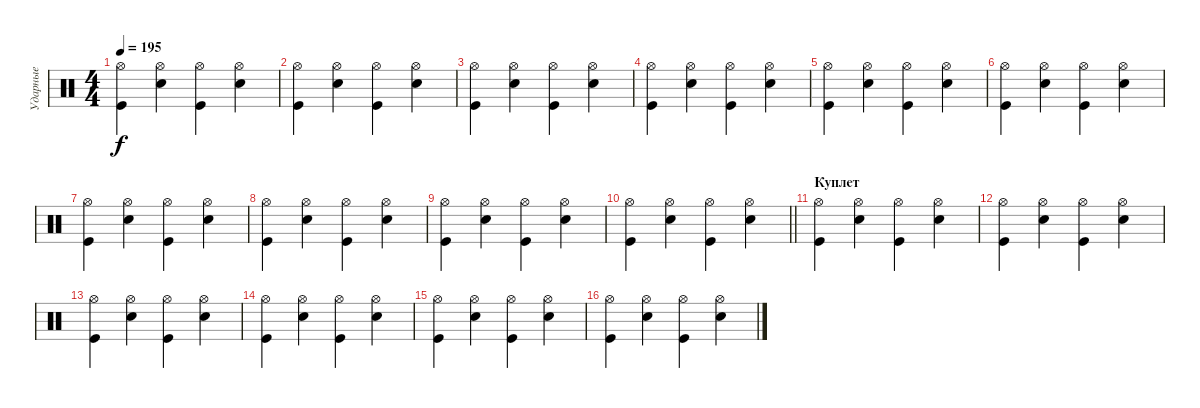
\track ("Ударные" "Ударные") {instrument percussion}
\staff {score}
\articulation defaults
\ts (4 4)
\tempo 195
\clef neutral
\ks c
("Hi-Hat (open)" "Kick (hit)").4{dy f} ("Hi-Hat (open)" "Electric Snare (hit)").4 ("Hi-Hat (open)" "Kick (hit)").4 ("Hi-Hat (open)" "Electric Snare (hit)").4 |
("Hi-Hat (open)" "Kick (hit)").4 ("Hi-Hat (open)" "Electric Snare (hit)").4 ("Hi-Hat (open)" "Kick (hit)").4 ("Hi-Hat (open)" "Electric Snare (hit)").4 |
("Hi-Hat (open)" "Kick (hit)").4 ("Hi-Hat (open)" "Electric Snare (hit)").4 ("Hi-Hat (open)" "Kick (hit)").4 ("Hi-Hat (open)" "Electric Snare (hit)").4 |
("Hi-Hat (open)" "Kick (hit)").4 ("Hi-Hat (open)" "Electric Snare (hit)").4 ("Hi-Hat (open)" "Kick (hit)").4 ("Hi-Hat (open)" "Electric Snare (hit)").4 |
("Hi-Hat (open)" "Kick (hit)").4 ("Hi-Hat (open)" "Electric Snare (hit)").4 ("Hi-Hat (open)" "Kick (hit)").4 ("Hi-Hat (open)" "Electric Snare (hit)").4 |
("Hi-Hat (open)" "Kick (hit)").4 ("Hi-Hat (open)" "Electric Snare (hit)").4 ("Hi-Hat (open)" "Kick (hit)").4 ("Hi-Hat (open)" "Electric Snare (hit)").4 |
("Hi-Hat (open)" "Kick (hit)").4 ("Hi-Hat (open)" "Electric Snare (hit)").4 ("Hi-Hat (open)" "Kick (hit)").4 ("Hi-Hat (open)" "Electric Snare (hit)").4 |
("Hi-Hat (open)" "Kick (hit)").4 ("Hi-Hat (open)" "Electric Snare (hit)").4 ("Hi-Hat (open)" "Kick (hit)").4 ("Hi-Hat (open)" "Electric Snare (hit)").4 |
("Hi-Hat (open)" "Kick (hit)").4 ("Hi-Hat (open)" "Electric Snare (hit)").4 ("Hi-Hat (open)" "Kick (hit)").4 ("Hi-Hat (open)" "Electric Snare (hit)").4 |
\barLineRight lightlight
("Hi-Hat (open)" "Kick (hit)").4 ("Hi-Hat (open)" "Electric Snare (hit)").4 ("Hi-Hat (open)" "Kick (hit)").4 ("Hi-Hat (open)" "Electric Snare (hit)").4 |
\section ("" "Куплет")
("Hi-Hat (open)" "Kick (hit)").4 ("Hi-Hat (open)" "Electric Snare (hit)").4 ("Hi-Hat (open)" "Kick (hit)").4 ("Hi-Hat (open)" "Electric Snare (hit)").4 |
("Hi-Hat (open)" "Kick (hit)").4 ("Hi-Hat (open)" "Electric Snare (hit)").4 ("Hi-Hat (open)" "Kick (hit)").4 ("Hi-Hat (open)" "Electric Snare (hit)").4 |
("Hi-Hat (open)" "Kick (hit)").4 ("Hi-Hat (open)" "Electric Snare (hit)").4 ("Hi-Hat (open)" "Kick (hit)").4 ("Hi-Hat (open)" "Electric Snare (hit)").4 |
("Hi-Hat (open)" "Kick (hit)").4 ("Hi-Hat (open)" "Electric Snare (hit)").4 ("Hi-Hat (open)" "Kick (hit)").4 ("Hi-Hat (open)" "Electric Snare (hit)").4 |
("Hi-Hat (open)" "Kick (hit)").4 ("Hi-Hat (open)" "Electric Snare (hit)").4 ("Hi-Hat (open)" "Kick (hit)").4 ("Hi-Hat (open)" "Electric Snare (hit)").4 |
("Hi-Hat (open)" "Kick (hit)").4 ("Hi-Hat (open)" "Electric Snare (hit)").4 ("Hi-Hat (open)" "Kick (hit)").4 ("Hi-Hat (open)" "Electric Snare (hit)").4
